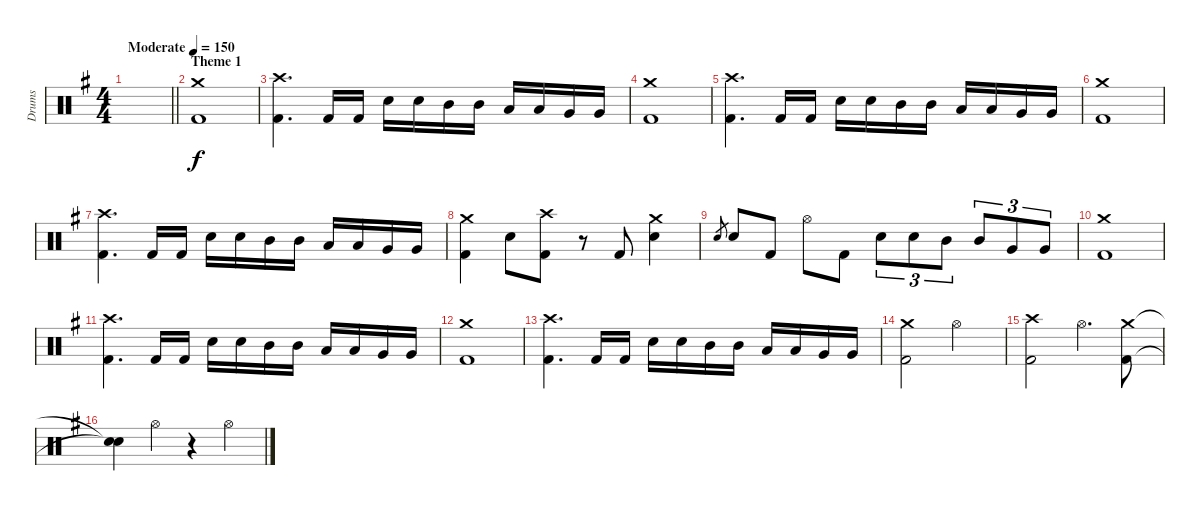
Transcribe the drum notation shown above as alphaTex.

\track ("Drums" "Drums") {instrument percussion}
\staff {score}
\articulation defaults
\ts (4 4)
\tempo (150 "Moderate")
\clef neutral
\barLineRight lightlight
\ks eminor
|
\section ("" "Theme 1")
("Crash medium (hit)" "Kick (hit) 2").1 |
("Crash high (hit)" "Kick (hit) 2").4{d} "Kick (hit) 2".16 "Kick (hit) 2".16 "Electric Snare (hit)".16 "Electric Snare (hit)".16 "Mid Tom (hit)".16 "Mid Tom (hit)".16 "Low Tom (hit)".16 "Low Tom (hit)".16 "Very Low Tom (hit)".16 "Very Low Tom (hit)".16 |
("Crash medium (hit)" "Kick (hit) 2").1 |
("Crash high (hit)" "Kick (hit) 2").4{d} "Kick (hit) 2".16 "Kick (hit) 2".16 "Electric Snare (hit)".16 "Electric Snare (hit)".16 "Mid Tom (hit)".16 "Mid Tom (hit)".16 "Low Tom (hit)".16 "Low Tom (hit)".16 "Very Low Tom (hit)".16 "Very Low Tom (hit)".16 |
("Crash medium (hit)" "Kick (hit) 2").1 |
("Crash high (hit)" "Kick (hit) 2").4{d} "Kick (hit) 2".16 "Kick (hit) 2".16 "Electric Snare (hit)".16 "Electric Snare (hit)".16 "Mid Tom (hit)".16 "Mid Tom (hit)".16 "Low Tom (hit)".16 "Low Tom (hit)".16 "Very Low Tom (hit)".16 "Very Low Tom (hit)".16 |
("Crash medium (hit)" "Kick (hit) 2").4 "Electric Snare (hit)".8 ("Crash high (hit)" "Kick (hit) 2").8 r.8 "Kick (hit) 2".8 ("Crash medium (hit)" "Electric Snare (hit)").4 |
"Electric Snare (hit)".8{gr} "Electric Snare (hit)".8 "Kick (hit) 2".8 "Hi-Hat (open)".8 "Kick (hit) 2".8 "Electric Snare (hit)".8{tu (3 2)} "Electric Snare (hit)".8{tu (3 2)} "Mid Tom (hit)".8{tu (3 2)} "Mid Tom (hit)".8{tu (3 2)} "Very Low Tom (hit)".8{tu (3 2)} "Very Low Tom (hit)".8{tu (3 2)} |
("Crash medium (hit)" "Kick (hit) 2").1 |
("Crash high (hit)" "Kick (hit) 2").4{d} "Kick (hit) 2".16 "Kick (hit) 2".16 "Electric Snare (hit)".16 "Electric Snare (hit)".16 "Mid Tom (hit)".16 "Mid Tom (hit)".16 "Low Tom (hit)".16 "Low Tom (hit)".16 "Very Low Tom (hit)".16 "Very Low Tom (hit)".16 |
("Crash medium (hit)" "Kick (hit) 2").1 |
("Crash high (hit)" "Kick (hit) 2").4{d} "Kick (hit) 2".16 "Kick (hit) 2".16 "Electric Snare (hit)".16 "Electric Snare (hit)".16 "Mid Tom (hit)".16 "Mid Tom (hit)".16 "Low Tom (hit)".16 "Low Tom (hit)".16 "Very Low Tom (hit)".16 "Very Low Tom (hit)".16 |
("Crash medium (hit)" "Kick (hit) 2").2 "Hi-Hat (open)".2 |
("Crash high (hit)" "Kick (hit) 2").2 "Hi-Hat (open)".4{d} ("Crash medium (hit)" "Kick (hit) 2").8 |
("Snare (hit)"{t} "Snare (hit)"{t}).4 "Hi-Hat (open)".4 r.4 "Hi-Hat (open)".4
